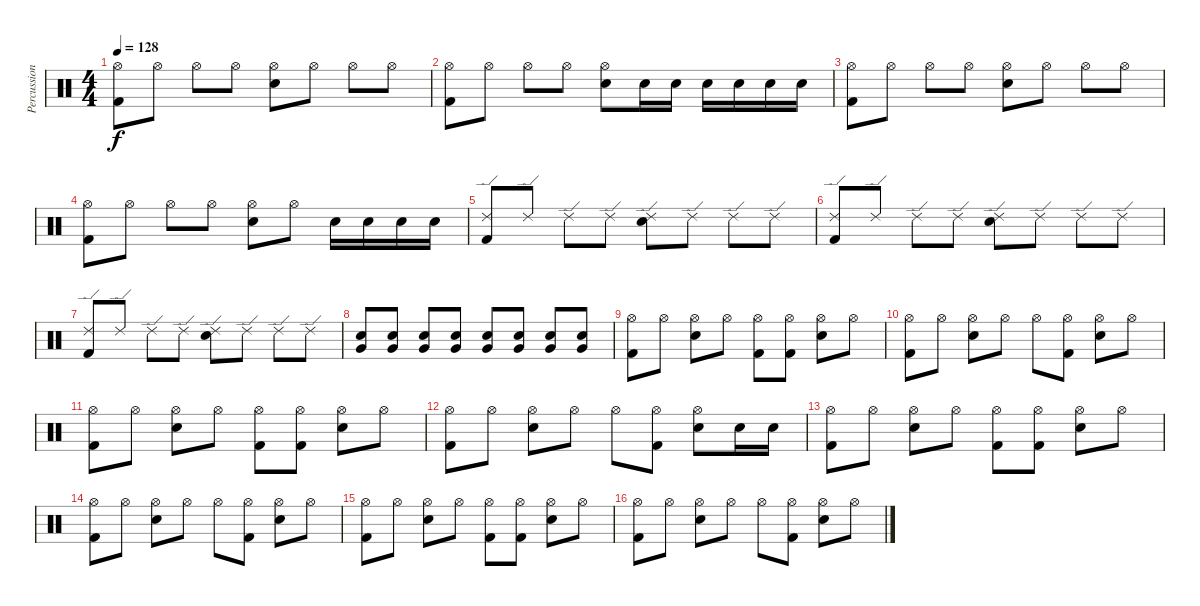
\track ("Percussion" "Percussion") {instrument percussion}
\staff {score}
\articulation defaults
\ts (4 4)
\tempo 128
\clef neutral
\ks c
("Hi-Hat (open)" "Kick (hit) 2").8{dy f} "Hi-Hat (open)".8 "Hi-Hat (open)".8 "Hi-Hat (open)".8 ("Hi-Hat (open)" "Electric Snare (hit)").8 "Hi-Hat (open)".8 "Hi-Hat (open)".8 "Hi-Hat (open)".8 |
("Hi-Hat (open)" "Kick (hit) 2").8 "Hi-Hat (open)".8 "Hi-Hat (open)".8 "Hi-Hat (open)".8 ("Hi-Hat (open)" "Electric Snare (hit)").8 "Electric Snare (hit)".16 "Electric Snare (hit)".16 "Electric Snare (hit)".16 "Electric Snare (hit)".16 "Electric Snare (hit)".16 "Electric Snare (hit)".16 |
("Hi-Hat (open)" "Kick (hit) 2").8 "Hi-Hat (open)".8 "Hi-Hat (open)".8 "Hi-Hat (open)".8 ("Hi-Hat (open)" "Electric Snare (hit)").8 "Hi-Hat (open)".8 "Hi-Hat (open)".8 "Hi-Hat (open)".8 |
("Hi-Hat (open)" "Kick (hit) 2").8 "Hi-Hat (open)".8 "Hi-Hat (open)".8 "Hi-Hat (open)".8 ("Hi-Hat (open)" "Electric Snare (hit)").8 "Hi-Hat (open)".8 "Electric Snare (hit)".16 "Electric Snare (hit)".16 "Electric Snare (hit)".16 "Electric Snare (hit)".16 |
("Ride (edge) 2" "Kick (hit) 2").8 "Ride (edge) 2".8 "Ride (edge) 2".8 "Ride (edge) 2".8 ("Ride (edge) 2" "Electric Snare (hit)").8 "Ride (edge) 2".8 "Ride (edge) 2".8 "Ride (edge) 2".8 |
("Ride (edge) 2" "Kick (hit) 2").8 "Ride (edge) 2".8 "Ride (edge) 2".8 "Ride (edge) 2".8 ("Ride (edge) 2" "Electric Snare (hit)").8 "Ride (edge) 2".8 "Ride (edge) 2".8 "Ride (edge) 2".8 |
("Ride (edge) 2" "Kick (hit) 2").8 "Ride (edge) 2".8 "Ride (edge) 2".8 "Ride (edge) 2".8 ("Ride (edge) 2" "Electric Snare (hit)").8 "Ride (edge) 2".8 "Ride (edge) 2".8 "Ride (edge) 2".8 |
("Very Low Tom (hit)" "Electric Snare (hit)").8 ("Very Low Tom (hit)" "Electric Snare (hit)").8 ("Very Low Tom (hit)" "Electric Snare (hit)").8 ("Very Low Tom (hit)" "Electric Snare (hit)").8 ("Very Low Tom (hit)" "Electric Snare (hit)").8 ("Very Low Tom (hit)" "Electric Snare (hit)").8 ("Very Low Tom (hit)" "Electric Snare (hit)").8 ("Very Low Tom (hit)" "Electric Snare (hit)").8 |
("Hi-Hat (open)" "Kick (hit) 2").8 "Hi-Hat (open)".8 ("Hi-Hat (open)" "Electric Snare (hit)").8 "Hi-Hat (open)".8 ("Hi-Hat (open)" "Kick (hit) 2").8 ("Hi-Hat (open)" "Kick (hit) 2").8 ("Hi-Hat (open)" "Electric Snare (hit)").8 "Hi-Hat (open)".8 |
("Hi-Hat (open)" "Kick (hit) 2").8 "Hi-Hat (open)".8 ("Hi-Hat (open)" "Electric Snare (hit)").8 "Hi-Hat (open)".8 "Hi-Hat (open)".8 ("Hi-Hat (open)" "Kick (hit) 2").8 ("Hi-Hat (open)" "Electric Snare (hit)").8 "Hi-Hat (open)".8 |
("Hi-Hat (open)" "Kick (hit) 2").8 "Hi-Hat (open)".8 ("Hi-Hat (open)" "Electric Snare (hit)").8 "Hi-Hat (open)".8 ("Hi-Hat (open)" "Kick (hit) 2").8 ("Hi-Hat (open)" "Kick (hit) 2").8 ("Hi-Hat (open)" "Electric Snare (hit)").8 "Hi-Hat (open)".8 |
("Hi-Hat (open)" "Kick (hit) 2").8 "Hi-Hat (open)".8 ("Hi-Hat (open)" "Electric Snare (hit)").8 "Hi-Hat (open)".8 "Hi-Hat (open)".8 ("Hi-Hat (open)" "Kick (hit) 2").8 ("Hi-Hat (open)" "Electric Snare (hit)").8 "Electric Snare (hit)".16 "Electric Snare (hit)".16 |
("Hi-Hat (open)" "Kick (hit) 2").8 "Hi-Hat (open)".8 ("Hi-Hat (open)" "Electric Snare (hit)").8 "Hi-Hat (open)".8 ("Hi-Hat (open)" "Kick (hit) 2").8 ("Hi-Hat (open)" "Kick (hit) 2").8 ("Hi-Hat (open)" "Electric Snare (hit)").8 "Hi-Hat (open)".8 |
("Hi-Hat (open)" "Kick (hit) 2").8 "Hi-Hat (open)".8 ("Hi-Hat (open)" "Electric Snare (hit)").8 "Hi-Hat (open)".8 "Hi-Hat (open)".8 ("Hi-Hat (open)" "Kick (hit) 2").8 ("Hi-Hat (open)" "Electric Snare (hit)").8 "Hi-Hat (open)".8 |
("Hi-Hat (open)" "Kick (hit) 2").8 "Hi-Hat (open)".8 ("Hi-Hat (open)" "Electric Snare (hit)").8 "Hi-Hat (open)".8 ("Hi-Hat (open)" "Kick (hit) 2").8 ("Hi-Hat (open)" "Kick (hit) 2").8 ("Hi-Hat (open)" "Electric Snare (hit)").8 "Hi-Hat (open)".8 |
("Hi-Hat (open)" "Kick (hit) 2").8 "Hi-Hat (open)".8 ("Hi-Hat (open)" "Electric Snare (hit)").8 "Hi-Hat (open)".8 "Hi-Hat (open)".8 ("Hi-Hat (open)" "Kick (hit) 2").8 ("Hi-Hat (open)" "Electric Snare (hit)").8 "Hi-Hat (open)".8
